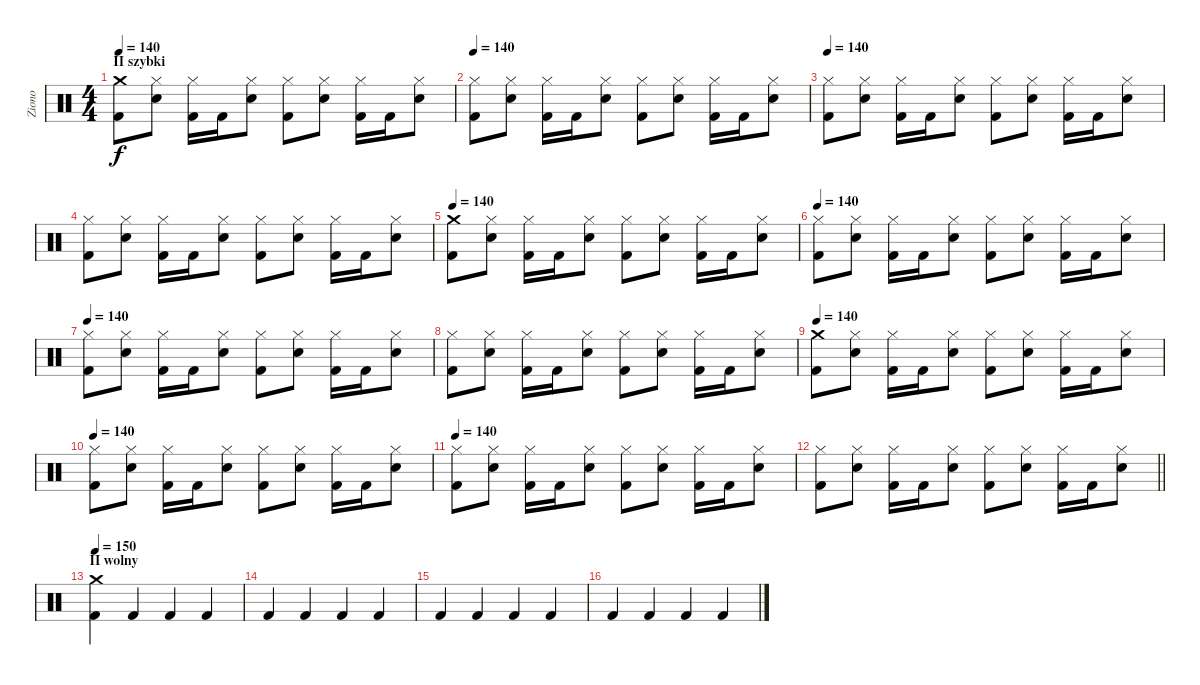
\track ("Ziono" "Ziono") {instrument percussion}
\staff {score}
\articulation defaults
\ts (4 4)
\section ("" "II szybki")
\tempo 140
\clef neutral
\ks c
("Kick (hit) 2" "Crash medium (hit)").8{dy f} ("Hi-Hat (closed)" "Snare (hit) 2").8 ("Hi-Hat (closed)" "Kick (hit) 2").16 "Kick (hit) 2".16 ("Hi-Hat (closed)" "Snare (hit) 2").8 ("Hi-Hat (closed)" "Kick (hit) 2").8 ("Hi-Hat (closed)" "Snare (hit) 2").8 ("Hi-Hat (closed)" "Kick (hit) 2").16 "Kick (hit) 2".16 ("Hi-Hat (closed)" "Snare (hit) 2").8 |
\tempo 140
("Hi-Hat (closed)" "Kick (hit) 2").8 ("Hi-Hat (closed)" "Snare (hit) 2").8 ("Hi-Hat (closed)" "Kick (hit) 2").16 "Kick (hit) 2".16 ("Hi-Hat (closed)" "Snare (hit) 2").8 ("Hi-Hat (closed)" "Kick (hit) 2").8 ("Hi-Hat (closed)" "Snare (hit) 2").8 ("Hi-Hat (closed)" "Kick (hit) 2").16 "Kick (hit) 2".16 ("Hi-Hat (closed)" "Snare (hit) 2").8 |
\tempo 140
("Hi-Hat (closed)" "Kick (hit) 2").8 ("Hi-Hat (closed)" "Snare (hit) 2").8 ("Hi-Hat (closed)" "Kick (hit) 2").16 "Kick (hit) 2".16 ("Hi-Hat (closed)" "Snare (hit) 2").8 ("Hi-Hat (closed)" "Kick (hit) 2").8 ("Hi-Hat (closed)" "Snare (hit) 2").8 ("Hi-Hat (closed)" "Kick (hit) 2").16 "Kick (hit) 2".16 ("Hi-Hat (closed)" "Snare (hit) 2").8 |
("Hi-Hat (closed)" "Kick (hit) 2").8 ("Hi-Hat (closed)" "Snare (hit) 2").8 ("Hi-Hat (closed)" "Kick (hit) 2").16 "Kick (hit) 2".16 ("Hi-Hat (closed)" "Snare (hit) 2").8 ("Hi-Hat (closed)" "Kick (hit) 2").8 ("Hi-Hat (closed)" "Snare (hit) 2").8 ("Hi-Hat (closed)" "Kick (hit) 2").16 "Kick (hit) 2".16 ("Hi-Hat (closed)" "Snare (hit) 2").8 |
\tempo 140
("Kick (hit) 2" "Crash medium (hit)").8 ("Hi-Hat (closed)" "Snare (hit) 2").8 ("Hi-Hat (closed)" "Kick (hit) 2").16 "Kick (hit) 2".16 ("Hi-Hat (closed)" "Snare (hit) 2").8 ("Hi-Hat (closed)" "Kick (hit) 2").8 ("Hi-Hat (closed)" "Snare (hit) 2").8 ("Hi-Hat (closed)" "Kick (hit) 2").16 "Kick (hit) 2".16 ("Hi-Hat (closed)" "Snare (hit) 2").8 |
\tempo 140
("Hi-Hat (closed)" "Kick (hit) 2").8 ("Hi-Hat (closed)" "Snare (hit) 2").8 ("Hi-Hat (closed)" "Kick (hit) 2").16 "Kick (hit) 2".16 ("Hi-Hat (closed)" "Snare (hit) 2").8 ("Hi-Hat (closed)" "Kick (hit) 2").8 ("Hi-Hat (closed)" "Snare (hit) 2").8 ("Hi-Hat (closed)" "Kick (hit) 2").16 "Kick (hit) 2".16 ("Hi-Hat (closed)" "Snare (hit) 2").8 |
\tempo 140
("Hi-Hat (closed)" "Kick (hit) 2").8 ("Hi-Hat (closed)" "Snare (hit) 2").8 ("Hi-Hat (closed)" "Kick (hit) 2").16 "Kick (hit) 2".16 ("Hi-Hat (closed)" "Snare (hit) 2").8 ("Hi-Hat (closed)" "Kick (hit) 2").8 ("Hi-Hat (closed)" "Snare (hit) 2").8 ("Hi-Hat (closed)" "Kick (hit) 2").16 "Kick (hit) 2".16 ("Hi-Hat (closed)" "Snare (hit) 2").8 |
("Hi-Hat (closed)" "Kick (hit) 2").8 ("Hi-Hat (closed)" "Snare (hit) 2").8 ("Hi-Hat (closed)" "Kick (hit) 2").16 "Kick (hit) 2".16 ("Hi-Hat (closed)" "Snare (hit) 2").8 ("Hi-Hat (closed)" "Kick (hit) 2").8 ("Hi-Hat (closed)" "Snare (hit) 2").8 ("Hi-Hat (closed)" "Kick (hit) 2").16 "Kick (hit) 2".16 ("Hi-Hat (closed)" "Snare (hit) 2").8 |
\tempo 140
("Kick (hit) 2" "Crash medium (hit)").8 ("Hi-Hat (closed)" "Snare (hit) 2").8 ("Hi-Hat (closed)" "Kick (hit) 2").16 "Kick (hit) 2".16 ("Hi-Hat (closed)" "Snare (hit) 2").8 ("Hi-Hat (closed)" "Kick (hit) 2").8 ("Hi-Hat (closed)" "Snare (hit) 2").8 ("Hi-Hat (closed)" "Kick (hit) 2").16 "Kick (hit) 2".16 ("Hi-Hat (closed)" "Snare (hit) 2").8 |
\tempo 140
("Hi-Hat (closed)" "Kick (hit) 2").8 ("Hi-Hat (closed)" "Snare (hit) 2").8 ("Hi-Hat (closed)" "Kick (hit) 2").16 "Kick (hit) 2".16 ("Hi-Hat (closed)" "Snare (hit) 2").8 ("Hi-Hat (closed)" "Kick (hit) 2").8 ("Hi-Hat (closed)" "Snare (hit) 2").8 ("Hi-Hat (closed)" "Kick (hit) 2").16 "Kick (hit) 2".16 ("Hi-Hat (closed)" "Snare (hit) 2").8 |
\tempo 140
("Hi-Hat (closed)" "Kick (hit) 2").8 ("Hi-Hat (closed)" "Snare (hit) 2").8 ("Hi-Hat (closed)" "Kick (hit) 2").16 "Kick (hit) 2".16 ("Hi-Hat (closed)" "Snare (hit) 2").8 ("Hi-Hat (closed)" "Kick (hit) 2").8 ("Hi-Hat (closed)" "Snare (hit) 2").8 ("Hi-Hat (closed)" "Kick (hit) 2").16 "Kick (hit) 2".16 ("Hi-Hat (closed)" "Snare (hit) 2").8 |
\barLineRight lightlight
("Hi-Hat (closed)" "Kick (hit) 2").8 ("Hi-Hat (closed)" "Snare (hit) 2").8 ("Hi-Hat (closed)" "Kick (hit) 2").16 "Kick (hit) 2".16 ("Hi-Hat (closed)" "Snare (hit) 2").8 ("Hi-Hat (closed)" "Kick (hit) 2").8 ("Hi-Hat (closed)" "Snare (hit) 2").8 ("Hi-Hat (closed)" "Kick (hit) 2").16 "Kick (hit) 2".16 ("Hi-Hat (closed)" "Snare (hit) 2").8 |
\section ("" "II wolny")
\tempo 150
("Kick (hit) 2" "Crash medium (hit)").4 "Kick (hit) 2".4 "Kick (hit) 2".4 "Kick (hit) 2".4 |
"Kick (hit) 2".4 "Kick (hit) 2".4 "Kick (hit) 2".4 "Kick (hit) 2".4 |
"Kick (hit) 2".4 "Kick (hit) 2".4 "Kick (hit) 2".4 "Kick (hit) 2".4 |
"Kick (hit) 2".4 "Kick (hit) 2".4 "Kick (hit) 2".4 "Kick (hit) 2".4
